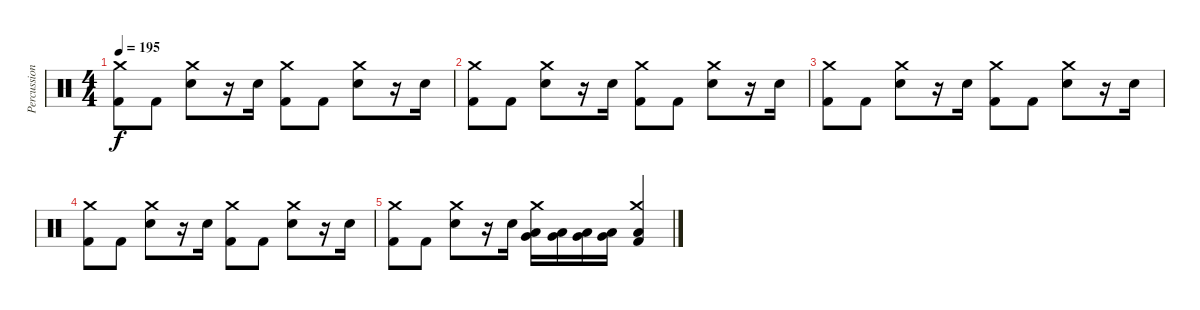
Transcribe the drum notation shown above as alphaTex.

\track ("Percussions" "Percussion") {instrument percussion}
\staff {score}
\articulation defaults
\ts (4 4)
\tempo 195
\clef neutral
\ks c
("Kick (hit) 2" "Crash medium (hit)").8{dy f} "Kick (hit) 2".8 ("Electric Snare (hit)" "Crash medium (hit)").8 r.16 "Electric Snare (hit)".16 ("Kick (hit) 2" "Crash medium (hit)").8 "Kick (hit) 2".8 ("Electric Snare (hit)" "Crash medium (hit)").8 r.16 "Electric Snare (hit)".16 |
("Kick (hit) 2" "Crash medium (hit)").8 "Kick (hit) 2".8 ("Electric Snare (hit)" "Crash medium (hit)").8 r.16 "Electric Snare (hit)".16 ("Kick (hit) 2" "Crash medium (hit)").8 "Kick (hit) 2".8 ("Electric Snare (hit)" "Crash medium (hit)").8 r.16 "Electric Snare (hit)".16 |
("Kick (hit) 2" "Crash medium (hit)").8 "Kick (hit) 2".8 ("Electric Snare (hit)" "Crash medium (hit)").8 r.16 "Electric Snare (hit)".16 ("Kick (hit) 2" "Crash medium (hit)").8 "Kick (hit) 2".8 ("Electric Snare (hit)" "Crash medium (hit)").8 r.16 "Electric Snare (hit)".16 |
("Kick (hit) 2" "Crash medium (hit)").8 "Kick (hit) 2".8 ("Electric Snare (hit)" "Crash medium (hit)").8 r.16 "Electric Snare (hit)".16 ("Kick (hit) 2" "Crash medium (hit)").8 "Kick (hit) 2".8 ("Electric Snare (hit)" "Crash medium (hit)").8 r.16 "Electric Snare (hit)".16 |
("Kick (hit) 2" "Crash medium (hit)").8 "Kick (hit) 2".8 ("Electric Snare (hit)" "Crash medium (hit)").8 r.16 "Electric Snare (hit)".16 ("Low Floor Tom (hit)" "Very Low Tom (hit)" "Crash medium (hit)").16 ("Low Floor Tom (hit)" "Very Low Tom (hit)").16 ("Low Floor Tom (hit)" "Very Low Tom (hit)").16 ("Low Floor Tom (hit)" "Very Low Tom (hit)").16 ("Crash medium (hit)" "Kick (hit) 2" "Low Floor Tom (hit)").4
